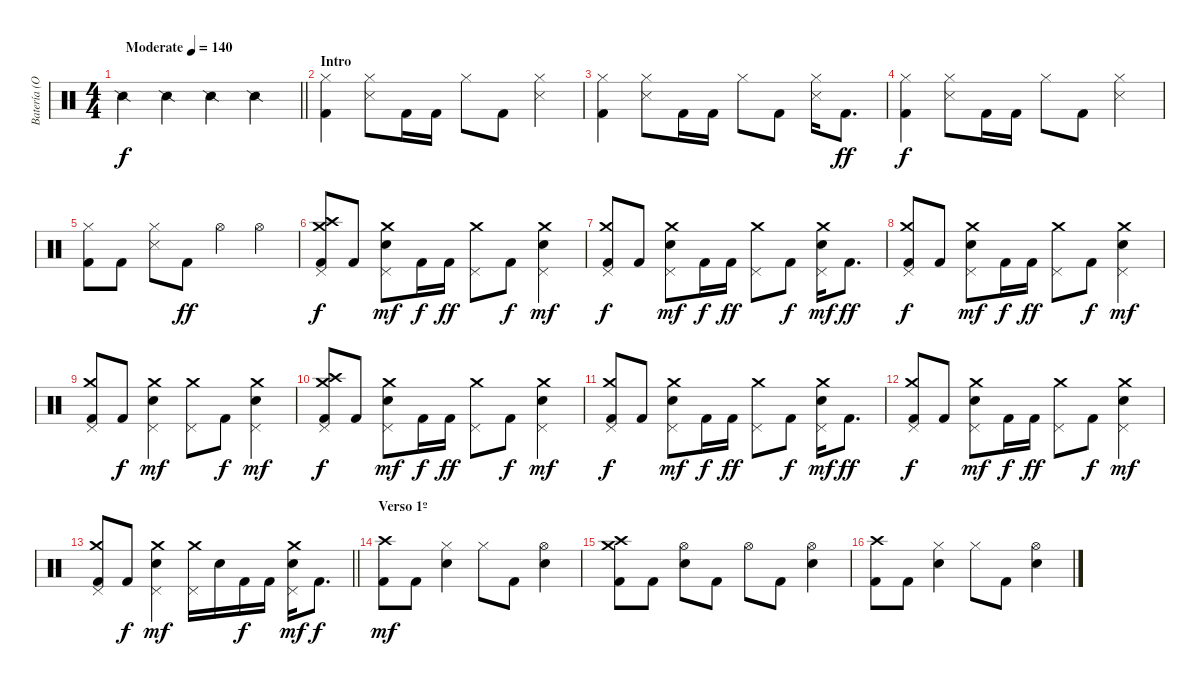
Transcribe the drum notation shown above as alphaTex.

\track ("Batería (Oxi)" "Batería (O") {instrument percussion}
\staff {score}
\articulation defaults
\ts (4 4)
\tempo (140 "Moderate")
\clef neutral
\barLineRight lightlight
\ks c "Snare (side stick) 2".4{dy f} "Snare (side stick) 2".4 "Snare (side stick) 2".4 "Snare (side stick) 2".4
|
\section ("" "Intro")
("Hi-Hat (closed)" "Kick (hit) 2").4 ("Hi-Hat (closed)" "Snare (side stick) 3").8 "Kick (hit) 2".16 "Kick (hit) 2".16 "Hi-Hat (closed)".8 "Kick (hit) 2".8 ("Hi-Hat (closed)" "Snare (side stick) 3").4 |
("Hi-Hat (closed)" "Kick (hit) 2").4 ("Hi-Hat (closed)" "Snare (side stick) 3").8 "Kick (hit) 2".16 "Kick (hit) 2".16 "Hi-Hat (closed)".8 "Kick (hit) 2".8 ("Hi-Hat (closed)" "Snare (side stick) 3").16 "Kick (hit) 2".8{d dy ff} |
("Hi-Hat (closed)" "Kick (hit) 2").4{dy f} ("Hi-Hat (closed)" "Snare (side stick) 3").8 "Kick (hit) 2".16 "Kick (hit) 2".16 "Hi-Hat (closed)".8 "Kick (hit) 2".8 ("Hi-Hat (closed)" "Snare (side stick) 3").4 |
("Hi-Hat (closed)" "Kick (hit) 2").8 "Kick (hit) 2".8 ("Hi-Hat (closed)" "Snare (side stick) 3").8 "Kick (hit) 2".8{dy ff} "Hi-Hat (open)".4 "Hi-Hat (open)".4 |
("Crash medium (hit)" "Crash high (hit)" "Pedal Hi-Hat (hit)" "Kick (hit) 2").8{dy f} "Kick (hit) 2".8 ("Crash medium (hit)" "Pedal Hi-Hat (hit)" "Electric Snare (hit)").8{dy mf} "Kick (hit) 2".16{dy f} "Kick (hit) 2".16{dy ff} ("Crash medium (hit)" "Pedal Hi-Hat (hit)").8 "Kick (hit) 2".8{dy f} ("Crash medium (hit)" "Pedal Hi-Hat (hit)" "Electric Snare (hit)").4{dy mf} |
("Crash medium (hit)" "Pedal Hi-Hat (hit)" "Kick (hit) 2").8{dy f} "Kick (hit) 2".8 ("Crash medium (hit)" "Pedal Hi-Hat (hit)" "Electric Snare (hit)").8{dy mf} "Kick (hit) 2".16{dy f} "Kick (hit) 2".16{dy ff} ("Crash medium (hit)" "Pedal Hi-Hat (hit)").8 "Kick (hit) 2".8{dy f} ("Crash medium (hit)" "Pedal Hi-Hat (hit)" "Electric Snare (hit)").16{dy mf} "Kick (hit) 2".8{d dy ff} |
("Crash medium (hit)" "Pedal Hi-Hat (hit)" "Kick (hit) 2").8{dy f} "Kick (hit) 2".8 ("Crash medium (hit)" "Pedal Hi-Hat (hit)" "Electric Snare (hit)").8{dy mf} "Kick (hit) 2".16{dy f} "Kick (hit) 2".16{dy ff} ("Crash medium (hit)" "Pedal Hi-Hat (hit)").8 "Kick (hit) 2".8{dy f} ("Crash medium (hit)" "Pedal Hi-Hat (hit)" "Electric Snare (hit)").4{dy mf} |
("Crash medium (hit)" "Pedal Hi-Hat (hit)" "Kick (hit) 2").8 "Kick (hit) 2".8{dy f} ("Crash medium (hit)" "Pedal Hi-Hat (hit)" "Electric Snare (hit)").4{dy mf} ("Crash medium (hit)" "Pedal Hi-Hat (hit)").8 "Kick (hit) 2".8{dy f} ("Crash medium (hit)" "Pedal Hi-Hat (hit)" "Electric Snare (hit)").4{dy mf} |
("Crash medium (hit)" "Crash high (hit)" "Pedal Hi-Hat (hit)" "Kick (hit) 2").8{dy f} "Kick (hit) 2".8 ("Crash medium (hit)" "Pedal Hi-Hat (hit)" "Electric Snare (hit)").8{dy mf} "Kick (hit) 2".16{dy f} "Kick (hit) 2".16{dy ff} ("Crash medium (hit)" "Pedal Hi-Hat (hit)").8 "Kick (hit) 2".8{dy f} ("Crash medium (hit)" "Pedal Hi-Hat (hit)" "Electric Snare (hit)").4{dy mf} |
("Crash medium (hit)" "Pedal Hi-Hat (hit)" "Kick (hit) 2").8{dy f} "Kick (hit) 2".8 ("Crash medium (hit)" "Pedal Hi-Hat (hit)" "Electric Snare (hit)").8{dy mf} "Kick (hit) 2".16{dy f} "Kick (hit) 2".16{dy ff} ("Crash medium (hit)" "Pedal Hi-Hat (hit)").8 "Kick (hit) 2".8{dy f} ("Crash medium (hit)" "Pedal Hi-Hat (hit)" "Electric Snare (hit)").16{dy mf} "Kick (hit) 2".8{d dy ff} |
("Crash medium (hit)" "Pedal Hi-Hat (hit)" "Kick (hit) 2").8{dy f} "Kick (hit) 2".8 ("Crash medium (hit)" "Pedal Hi-Hat (hit)" "Electric Snare (hit)").8{dy mf} "Kick (hit) 2".16{dy f} "Kick (hit) 2".16{dy ff} ("Crash medium (hit)" "Pedal Hi-Hat (hit)").8 "Kick (hit) 2".8{dy f} ("Crash medium (hit)" "Pedal Hi-Hat (hit)" "Electric Snare (hit)").4{dy mf} |
\barLineRight lightlight
("Crash medium (hit)" "Pedal Hi-Hat (hit)" "Kick (hit) 2").8 "Kick (hit) 2".8{dy f} ("Crash medium (hit)" "Pedal Hi-Hat (hit)" "Electric Snare (hit)").4{dy mf} ("Crash medium (hit)" "Pedal Hi-Hat (hit)").16 "Electric Snare (hit)".16 "Kick (hit) 2".16{dy f} "Kick (hit) 2".16 ("Crash medium (hit)" "Pedal Hi-Hat (hit)" "Electric Snare (hit)").16{dy mf} "Kick (hit) 2".8{d dy f} |
\section ("" "Verso 1º")
("Crash high (hit)" "Kick (hit) 2").8{dy mf} "Kick (hit) 2".8 ("Hi-Hat (closed)" "Electric Snare (hit)").4 "Hi-Hat (closed)".8 "Kick (hit) 2".8 ("Hi-Hat (open)" "Electric Snare (hit)").4 |
("Crash medium (hit)" "Crash high (hit)" "Kick (hit) 2").8 "Kick (hit) 2".8 ("Hi-Hat (open)" "Electric Snare (hit)").8 "Kick (hit) 2".8 "Hi-Hat (open)".8 "Kick (hit) 2".8 ("Hi-Hat (open)" "Electric Snare (hit)").4 |
("Crash high (hit)" "Kick (hit) 2").8 "Kick (hit) 2".8 ("Hi-Hat (closed)" "Electric Snare (hit)").4 "Hi-Hat (closed)".8 "Kick (hit) 2".8 ("Hi-Hat (open)" "Electric Snare (hit)").4
